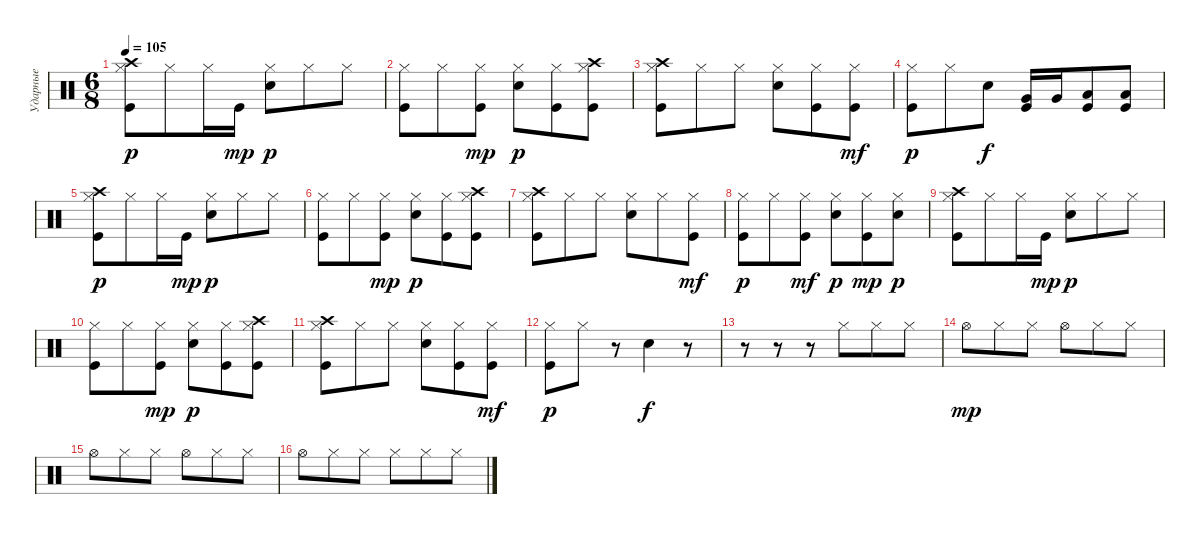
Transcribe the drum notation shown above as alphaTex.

\track ("Ударные" "Ударные") {instrument percussion}
\staff {score}
\articulation defaults
\ts (6 8)
\tempo 105
\clef neutral
\ks c
("Crash high (hit)" "Hi-Hat (closed)" "Kick (hit)").8{dy p} "Hi-Hat (closed)".8 "Hi-Hat (closed)".16 "Kick (hit)".16{dy mp} ("Hi-Hat (closed)" "Electric Snare (hit)").8{dy p} "Hi-Hat (closed)".8 "Hi-Hat (closed)".8 |
("Hi-Hat (closed)" "Kick (hit)").8 "Hi-Hat (closed)".8 ("Hi-Hat (closed)" "Kick (hit)").8{dy mp} ("Hi-Hat (closed)" "Electric Snare (hit)").8{dy p} ("Hi-Hat (closed)" "Kick (hit)").8 ("Crash high (hit)" "Hi-Hat (closed)" "Kick (hit)").8 |
("Crash high (hit)" "Hi-Hat (closed)" "Kick (hit)").8 "Hi-Hat (closed)".8 "Hi-Hat (closed)".8 ("Hi-Hat (closed)" "Electric Snare (hit)").8 ("Hi-Hat (closed)" "Kick (hit)").8 ("Hi-Hat (closed)" "Kick (hit)").8{dy mf} |
("Hi-Hat (closed)" "Kick (hit)").8{dy p} "Hi-Hat (closed)".8 "Electric Snare (hit)".8{dy f} ("Kick (hit)" "Very Low Tom (hit)").16 "Very Low Tom (hit)".16 ("Kick (hit)" "Low Floor Tom (hit)").8 ("Kick (hit)" "Low Floor Tom (hit)").8 |
("Crash high (hit)" "Hi-Hat (closed)" "Kick (hit)").8{dy p} "Hi-Hat (closed)".8 "Hi-Hat (closed)".16 "Kick (hit)".16{dy mp} ("Hi-Hat (closed)" "Electric Snare (hit)").8{dy p} "Hi-Hat (closed)".8 "Hi-Hat (closed)".8 |
("Hi-Hat (closed)" "Kick (hit)").8 "Hi-Hat (closed)".8 ("Hi-Hat (closed)" "Kick (hit)").8{dy mp} ("Hi-Hat (closed)" "Electric Snare (hit)").8{dy p} ("Hi-Hat (closed)" "Kick (hit)").8 ("Crash high (hit)" "Hi-Hat (closed)" "Kick (hit)").8 |
("Crash high (hit)" "Hi-Hat (closed)" "Kick (hit)").8 "Hi-Hat (closed)".8 "Hi-Hat (closed)".8 ("Hi-Hat (closed)" "Electric Snare (hit)").8 "Hi-Hat (closed)".8 ("Hi-Hat (closed)" "Kick (hit)").8{dy mf} |
("Hi-Hat (closed)" "Kick (hit)").8{dy p} "Hi-Hat (closed)".8 ("Hi-Hat (closed)" "Kick (hit)").8{dy mf} ("Hi-Hat (closed)" "Electric Snare (hit)").8{dy p} ("Hi-Hat (closed)" "Kick (hit)").8{dy mp} ("Hi-Hat (closed)" "Electric Snare (hit)").8{dy p} |
("Crash high (hit)" "Hi-Hat (closed)" "Kick (hit)").8 "Hi-Hat (closed)".8 "Hi-Hat (closed)".16 "Kick (hit)".16{dy mp} ("Hi-Hat (closed)" "Electric Snare (hit)").8{dy p} "Hi-Hat (closed)".8 "Hi-Hat (closed)".8 |
("Hi-Hat (closed)" "Kick (hit)").8 "Hi-Hat (closed)".8 ("Hi-Hat (closed)" "Kick (hit)").8{dy mp} ("Hi-Hat (closed)" "Electric Snare (hit)").8{dy p} ("Hi-Hat (closed)" "Kick (hit)").8 ("Crash high (hit)" "Hi-Hat (closed)" "Kick (hit)").8 |
("Crash high (hit)" "Hi-Hat (closed)" "Kick (hit)").8 "Hi-Hat (closed)".8 "Hi-Hat (closed)".8 ("Hi-Hat (closed)" "Electric Snare (hit)").8 ("Hi-Hat (closed)" "Kick (hit)").8 ("Hi-Hat (closed)" "Kick (hit)").8{dy mf} |
("Hi-Hat (closed)" "Kick (hit)").8{dy p} "Hi-Hat (closed)".8 r.8 "Electric Snare (hit)".4{dy f} r.8 |
r.8 r.8 r.8 "Hi-Hat (closed)".8 "Hi-Hat (closed)".8 "Hi-Hat (closed)".8 |
"Hi-Hat (open)".8{dy mp} "Hi-Hat (closed)".8 "Hi-Hat (closed)".8 "Hi-Hat (open)".8 "Hi-Hat (closed)".8 "Hi-Hat (closed)".8 |
"Hi-Hat (open)".8 "Hi-Hat (closed)".8 "Hi-Hat (closed)".8 "Hi-Hat (open)".8 "Hi-Hat (closed)".8 "Hi-Hat (closed)".8 |
"Hi-Hat (open)".8 "Hi-Hat (closed)".8 "Hi-Hat (closed)".8 "Hi-Hat (closed)".8 "Hi-Hat (closed)".8 "Hi-Hat (closed)".8
